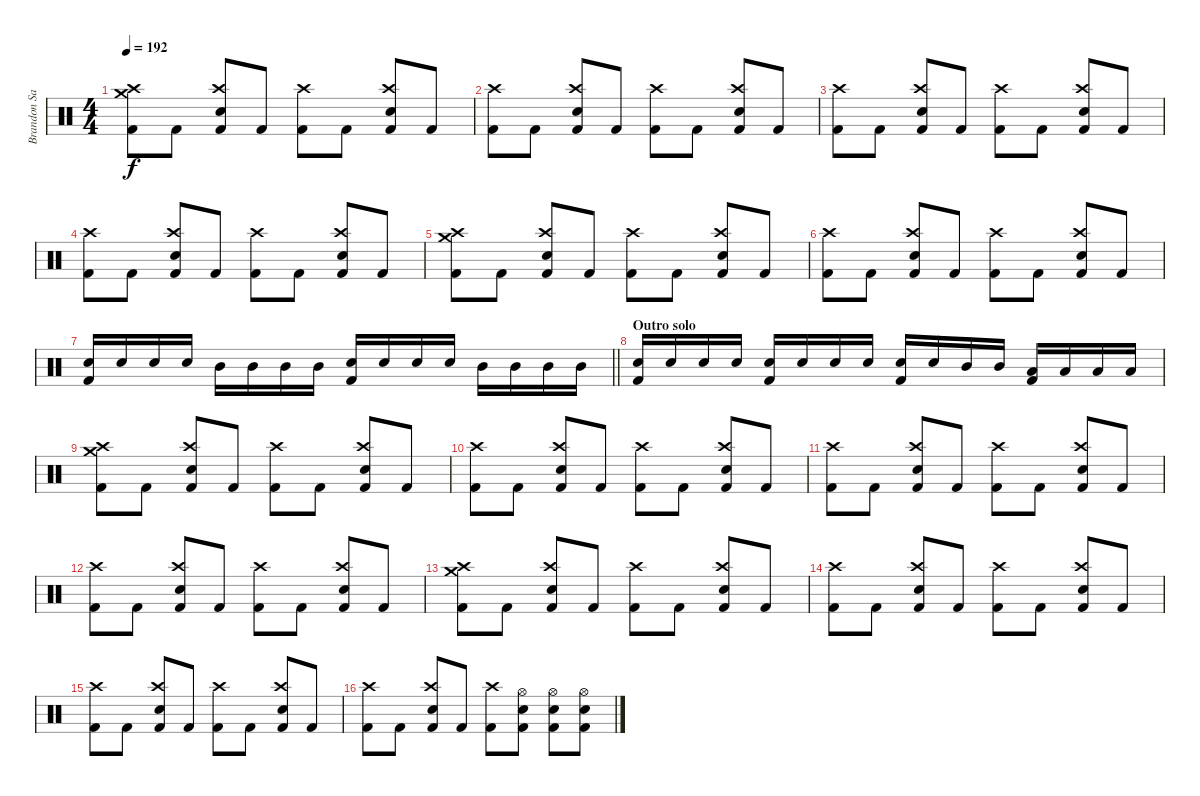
\track ("Brandon Saller" "Brandon Sa") {instrument percussion}
\staff {score}
\articulation defaults
\ts (4 4)
\tempo 192
\clef neutral
\ks aminor
("Kick (hit) 2" "Crash medium (hit)" "Crash high (hit)").8{dy f} "Kick (hit) 2".8 ("Kick (hit) 2" "Snare (hit) 2" "Crash high (hit)").8 "Kick (hit) 2".8 ("Kick (hit) 2" "Crash high (hit)").8 "Kick (hit) 2".8 ("Kick (hit) 2" "Snare (hit) 2" "Crash high (hit)").8 "Kick (hit) 2".8 |
("Kick (hit) 2" "Crash high (hit)").8 "Kick (hit) 2".8 ("Kick (hit) 2" "Snare (hit) 2" "Crash high (hit)").8 "Kick (hit) 2".8 ("Kick (hit) 2" "Crash high (hit)").8 "Kick (hit) 2".8 ("Kick (hit) 2" "Snare (hit) 2" "Crash high (hit)").8 "Kick (hit) 2".8 |
("Kick (hit) 2" "Crash high (hit)").8 "Kick (hit) 2".8 ("Kick (hit) 2" "Snare (hit) 2" "Crash high (hit)").8 "Kick (hit) 2".8 ("Kick (hit) 2" "Crash high (hit)").8 "Kick (hit) 2".8 ("Kick (hit) 2" "Snare (hit) 2" "Crash high (hit)").8 "Kick (hit) 2".8 |
("Kick (hit) 2" "Crash high (hit)").8 "Kick (hit) 2".8 ("Kick (hit) 2" "Snare (hit) 2" "Crash high (hit)").8 "Kick (hit) 2".8 ("Kick (hit) 2" "Crash high (hit)").8 "Kick (hit) 2".8 ("Kick (hit) 2" "Snare (hit) 2" "Crash high (hit)").8 "Kick (hit) 2".8 |
("Kick (hit) 2" "Crash medium (hit)" "Crash high (hit)").8 "Kick (hit) 2".8 ("Kick (hit) 2" "Snare (hit) 2" "Crash high (hit)").8 "Kick (hit) 2".8 ("Kick (hit) 2" "Crash high (hit)").8 "Kick (hit) 2".8 ("Kick (hit) 2" "Snare (hit) 2" "Crash high (hit)").8 "Kick (hit) 2".8 |
("Kick (hit) 2" "Crash high (hit)").8 "Kick (hit) 2".8 ("Kick (hit) 2" "Snare (hit) 2" "Crash high (hit)").8 "Kick (hit) 2".8 ("Kick (hit) 2" "Crash high (hit)").8 "Kick (hit) 2".8 ("Kick (hit) 2" "Snare (hit) 2" "Crash high (hit)").8 "Kick (hit) 2".8 |
\barLineRight lightlight
("Kick (hit) 2" "Snare (hit) 2").16 "Snare (hit) 2".16 "Snare (hit) 2".16 "Snare (hit) 2".16 "Mid Tom (hit)".16 "Mid Tom (hit)".16 "Mid Tom (hit)".16 "Mid Tom (hit)".16 ("Kick (hit) 2" "Snare (hit) 2").16 "Snare (hit) 2".16 "Snare (hit) 2".16 "Snare (hit) 2".16 "Mid Tom (hit)".16 "Mid Tom (hit)".16 "Mid Tom (hit)".16 "Mid Tom (hit)".16 |
\section ("" "Outro solo")
("Kick (hit) 2" "Snare (hit) 2").16 "Snare (hit) 2".16 "Snare (hit) 2".16 "Snare (hit) 2".16 ("Kick (hit) 2" "Snare (hit) 2").16 "Snare (hit) 2".16 "Snare (hit) 2".16 "Snare (hit) 2".16 ("Kick (hit) 2" "Snare (hit) 2").16 "Snare (hit) 2".16 "Mid Tom (hit)".16 "Mid Tom (hit)".16 ("Kick (hit) 2" "Low Tom (hit)").16 "Low Tom (hit)".16 "Low Floor Tom (hit)".16 "Low Floor Tom (hit)".16 |
("Kick (hit) 2" "Crash medium (hit)" "Crash high (hit)").8 "Kick (hit) 2".8 ("Kick (hit) 2" "Snare (hit) 2" "Crash high (hit)").8 "Kick (hit) 2".8 ("Kick (hit) 2" "Crash high (hit)").8 "Kick (hit) 2".8 ("Kick (hit) 2" "Snare (hit) 2" "Crash high (hit)").8 "Kick (hit) 2".8 |
("Kick (hit) 2" "Crash high (hit)").8 "Kick (hit) 2".8 ("Kick (hit) 2" "Snare (hit) 2" "Crash high (hit)").8 "Kick (hit) 2".8 ("Kick (hit) 2" "Crash high (hit)").8 "Kick (hit) 2".8 ("Kick (hit) 2" "Snare (hit) 2" "Crash high (hit)").8 "Kick (hit) 2".8 |
("Kick (hit) 2" "Crash high (hit)").8 "Kick (hit) 2".8 ("Kick (hit) 2" "Snare (hit) 2" "Crash high (hit)").8 "Kick (hit) 2".8 ("Kick (hit) 2" "Crash high (hit)").8 "Kick (hit) 2".8 ("Kick (hit) 2" "Snare (hit) 2" "Crash high (hit)").8 "Kick (hit) 2".8 |
("Kick (hit) 2" "Crash high (hit)").8 "Kick (hit) 2".8 ("Kick (hit) 2" "Snare (hit) 2" "Crash high (hit)").8 "Kick (hit) 2".8 ("Kick (hit) 2" "Crash high (hit)").8 "Kick (hit) 2".8 ("Kick (hit) 2" "Snare (hit) 2" "Crash high (hit)").8 "Kick (hit) 2".8 |
("Kick (hit) 2" "Crash medium (hit)" "Crash high (hit)").8 "Kick (hit) 2".8 ("Kick (hit) 2" "Snare (hit) 2" "Crash high (hit)").8 "Kick (hit) 2".8 ("Kick (hit) 2" "Crash high (hit)").8 "Kick (hit) 2".8 ("Kick (hit) 2" "Snare (hit) 2" "Crash high (hit)").8 "Kick (hit) 2".8 |
("Kick (hit) 2" "Crash high (hit)").8 "Kick (hit) 2".8 ("Kick (hit) 2" "Snare (hit) 2" "Crash high (hit)").8 "Kick (hit) 2".8 ("Kick (hit) 2" "Crash high (hit)").8 "Kick (hit) 2".8 ("Kick (hit) 2" "Snare (hit) 2" "Crash high (hit)").8 "Kick (hit) 2".8 |
("Kick (hit) 2" "Crash high (hit)").8 "Kick (hit) 2".8 ("Kick (hit) 2" "Snare (hit) 2" "Crash high (hit)").8 "Kick (hit) 2".8 ("Kick (hit) 2" "Crash high (hit)").8 "Kick (hit) 2".8 ("Kick (hit) 2" "Snare (hit) 2" "Crash high (hit)").8 "Kick (hit) 2".8 |
("Kick (hit) 2" "Crash high (hit)").8 "Kick (hit) 2".8 ("Kick (hit) 2" "Snare (hit) 2" "Crash high (hit)").8 "Kick (hit) 2".8 ("Kick (hit) 2" "Crash high (hit)").8 ("Kick (hit) 2" "Snare (hit) 2" "Hi-Hat (open)").8 ("Kick (hit) 2" "Snare (hit) 2" "Hi-Hat (open)").8 ("Kick (hit) 2" "Snare (hit) 2" "Hi-Hat (open)").8
